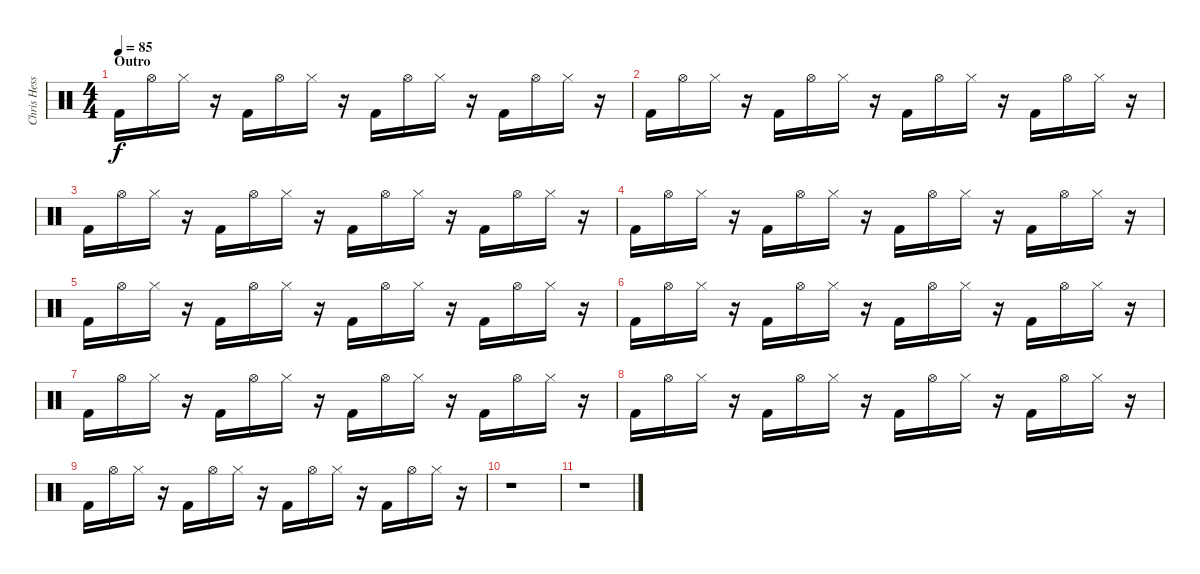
\track ("Chris Hesse - Drums" "Chris Hess") {instrument percussion}
\staff {score}
\articulation defaults
\ts (4 4)
\section ("" "Outro")
\tempo 85
\clef neutral
\ks c "Kick (hit) 2".16{dy f} "Hi-Hat (open)".16 "Hi-Hat (closed)".16
r.16 "Kick (hit) 2".16 "Hi-Hat (open)".16 "Hi-Hat (closed)".16 r.16 "Kick (hit) 2".16 "Hi-Hat (open)".16 "Hi-Hat (closed)".16 r.16 "Kick (hit) 2".16 "Hi-Hat (open)".16 "Hi-Hat (closed)".16 r.16 |
"Kick (hit) 2".16 "Hi-Hat (open)".16 "Hi-Hat (closed)".16 r.16 "Kick (hit) 2".16 "Hi-Hat (open)".16 "Hi-Hat (closed)".16 r.16 "Kick (hit) 2".16 "Hi-Hat (open)".16 "Hi-Hat (closed)".16 r.16 "Kick (hit) 2".16 "Hi-Hat (open)".16 "Hi-Hat (closed)".16 r.16 |
"Kick (hit) 2".16 "Hi-Hat (open)".16 "Hi-Hat (closed)".16 r.16 "Kick (hit) 2".16 "Hi-Hat (open)".16 "Hi-Hat (closed)".16 r.16 "Kick (hit) 2".16 "Hi-Hat (open)".16 "Hi-Hat (closed)".16 r.16 "Kick (hit) 2".16 "Hi-Hat (open)".16 "Hi-Hat (closed)".16 r.16 |
"Kick (hit) 2".16 "Hi-Hat (open)".16 "Hi-Hat (closed)".16 r.16 "Kick (hit) 2".16 "Hi-Hat (open)".16 "Hi-Hat (closed)".16 r.16 "Kick (hit) 2".16 "Hi-Hat (open)".16 "Hi-Hat (closed)".16 r.16 "Kick (hit) 2".16 "Hi-Hat (open)".16 "Hi-Hat (closed)".16 r.16 |
"Kick (hit) 2".16 "Hi-Hat (open)".16 "Hi-Hat (closed)".16 r.16 "Kick (hit) 2".16 "Hi-Hat (open)".16 "Hi-Hat (closed)".16 r.16 "Kick (hit) 2".16 "Hi-Hat (open)".16 "Hi-Hat (closed)".16 r.16 "Kick (hit) 2".16 "Hi-Hat (open)".16 "Hi-Hat (closed)".16 r.16 |
"Kick (hit) 2".16 "Hi-Hat (open)".16 "Hi-Hat (closed)".16 r.16 "Kick (hit) 2".16 "Hi-Hat (open)".16 "Hi-Hat (closed)".16 r.16 "Kick (hit) 2".16 "Hi-Hat (open)".16 "Hi-Hat (closed)".16 r.16 "Kick (hit) 2".16 "Hi-Hat (open)".16 "Hi-Hat (closed)".16 r.16 |
"Kick (hit) 2".16 "Hi-Hat (open)".16 "Hi-Hat (closed)".16 r.16 "Kick (hit) 2".16 "Hi-Hat (open)".16 "Hi-Hat (closed)".16 r.16 "Kick (hit) 2".16 "Hi-Hat (open)".16 "Hi-Hat (closed)".16 r.16 "Kick (hit) 2".16 "Hi-Hat (open)".16 "Hi-Hat (closed)".16 r.16 |
"Kick (hit) 2".16 "Hi-Hat (open)".16 "Hi-Hat (closed)".16 r.16 "Kick (hit) 2".16 "Hi-Hat (open)".16 "Hi-Hat (closed)".16 r.16 "Kick (hit) 2".16 "Hi-Hat (open)".16 "Hi-Hat (closed)".16 r.16 "Kick (hit) 2".16 "Hi-Hat (open)".16 "Hi-Hat (closed)".16 r.16 |
"Kick (hit) 2".16 "Hi-Hat (open)".16 "Hi-Hat (closed)".16 r.16 "Kick (hit) 2".16 "Hi-Hat (open)".16 "Hi-Hat (closed)".16 r.16 "Kick (hit) 2".16 "Hi-Hat (open)".16 "Hi-Hat (closed)".16 r.16 "Kick (hit) 2".16 "Hi-Hat (open)".16 "Hi-Hat (closed)".16 r.16 |
r.1 |
r.1
